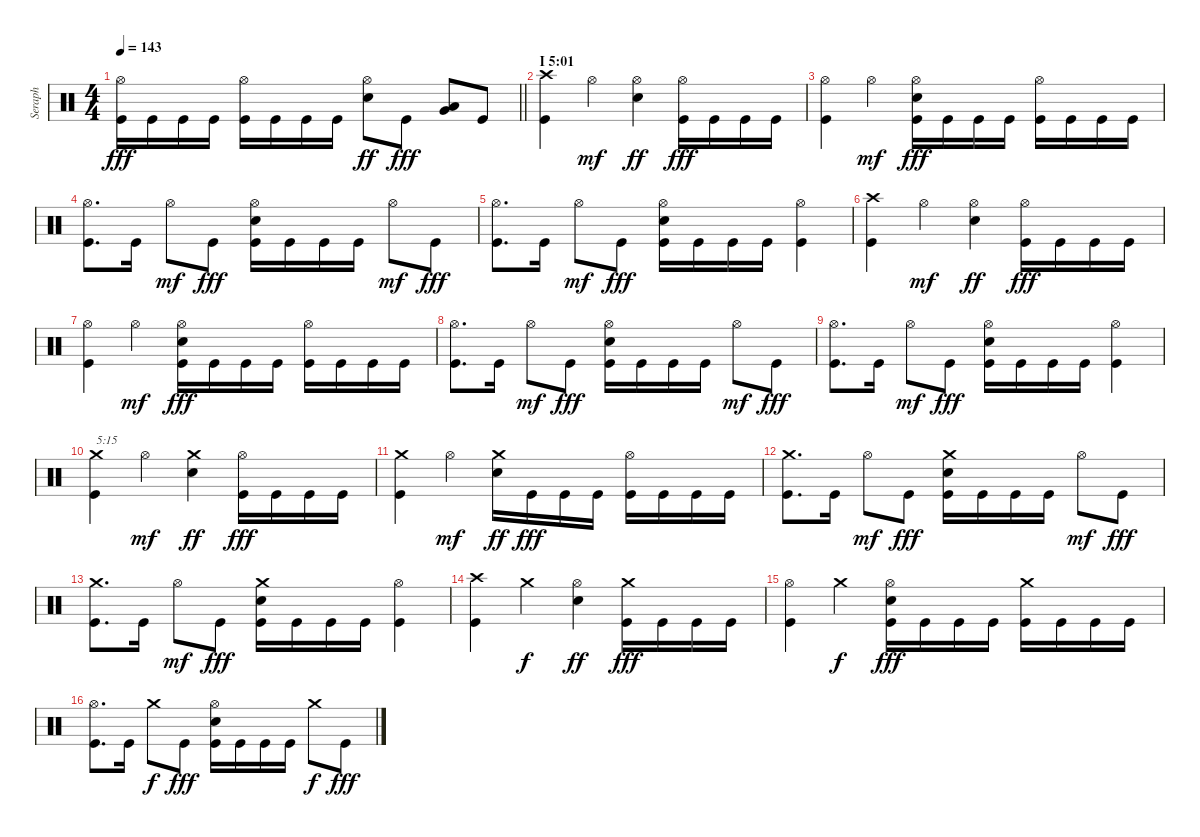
\track ("Seraph" "Seraph") {instrument percussion}
\staff {score}
\articulation defaults
\ts (4 4)
\tempo 143
\clef neutral
\barLineRight lightlight
\ks c
("Hi-Hat (open)" "Kick (hit)").16{dy fff} "Kick (hit)".16 "Kick (hit)".16 "Kick (hit)".16 ("Hi-Hat (open)" "Kick (hit)").16 "Kick (hit)".16 "Kick (hit)".16 "Kick (hit)".16 ("Hi-Hat (open)" "Electric Snare (hit)").8{dy ff} "Kick (hit)".8{dy fff} ("Very Low Tom (hit)" "Low Floor Tom (hit)").8 "Kick (hit)".8 |
\section ("" "I 5:01")
("Crash high (hit)" "Kick (hit)").4 "Hi-Hat (open)".4{dy mf} ("Hi-Hat (open)" "Electric Snare (hit)").4{dy ff} ("Hi-Hat (open)" "Kick (hit)").16{dy fff} "Kick (hit)".16 "Kick (hit)".16 "Kick (hit)".16 |
("Hi-Hat (open)" "Kick (hit)").4 "Hi-Hat (open)".4{dy mf} ("Hi-Hat (open)" "Electric Snare (hit)" "Kick (hit)").16{dy fff} "Kick (hit)".16 "Kick (hit)".16 "Kick (hit)".16 ("Hi-Hat (open)" "Kick (hit)").16 "Kick (hit)".16 "Kick (hit)".16 "Kick (hit)".16 |
("Hi-Hat (open)" "Kick (hit)").8{d} "Kick (hit)".16 "Hi-Hat (open)".8{dy mf} "Kick (hit)".8{dy fff} ("Hi-Hat (open)" "Electric Snare (hit)" "Kick (hit)").16 "Kick (hit)".16 "Kick (hit)".16 "Kick (hit)".16 "Hi-Hat (open)".8{dy mf} "Kick (hit)".8{dy fff} |
("Hi-Hat (open)" "Kick (hit)").8{d} "Kick (hit)".16 "Hi-Hat (open)".8{dy mf} "Kick (hit)".8{dy fff} ("Hi-Hat (open)" "Electric Snare (hit)" "Kick (hit)").16 "Kick (hit)".16 "Kick (hit)".16 "Kick (hit)".16 ("Hi-Hat (open)" "Kick (hit)").4 |
("Crash high (hit)" "Kick (hit)").4 "Hi-Hat (open)".4{dy mf} ("Hi-Hat (open)" "Electric Snare (hit)").4{dy ff} ("Hi-Hat (open)" "Kick (hit)").16{dy fff} "Kick (hit)".16 "Kick (hit)".16 "Kick (hit)".16 |
("Hi-Hat (open)" "Kick (hit)").4 "Hi-Hat (open)".4{dy mf} ("Hi-Hat (open)" "Electric Snare (hit)" "Kick (hit)").16{dy fff} "Kick (hit)".16 "Kick (hit)".16 "Kick (hit)".16 ("Hi-Hat (open)" "Kick (hit)").16 "Kick (hit)".16 "Kick (hit)".16 "Kick (hit)".16 |
("Hi-Hat (open)" "Kick (hit)").8{d} "Kick (hit)".16 "Hi-Hat (open)".8{dy mf} "Kick (hit)".8{dy fff} ("Hi-Hat (open)" "Electric Snare (hit)" "Kick (hit)").16 "Kick (hit)".16 "Kick (hit)".16 "Kick (hit)".16 "Hi-Hat (open)".8{dy mf} "Kick (hit)".8{dy fff} |
("Hi-Hat (open)" "Kick (hit)").8{d} "Kick (hit)".16 "Hi-Hat (open)".8{dy mf} "Kick (hit)".8{dy fff} ("Hi-Hat (open)" "Electric Snare (hit)" "Kick (hit)").16 "Kick (hit)".16 "Kick (hit)".16 "Kick (hit)".16 ("Hi-Hat (open)" "Kick (hit)").4 |
("Crash medium (hit)" "Kick (hit)").4{txt "5:15"} "Hi-Hat (open)".4{dy mf} ("Crash medium (hit)" "Electric Snare (hit)").4{dy ff} ("Hi-Hat (open)" "Kick (hit)").16{dy fff} "Kick (hit)".16 "Kick (hit)".16 "Kick (hit)".16 |
("Crash medium (hit)" "Kick (hit)").4 "Hi-Hat (open)".4{dy mf} ("Crash medium (hit)" "Electric Snare (hit)").16{dy ff} "Kick (hit)".16{dy fff} "Kick (hit)".16 "Kick (hit)".16 ("Hi-Hat (open)" "Kick (hit)").16 "Kick (hit)".16 "Kick (hit)".16 "Kick (hit)".16 |
("Crash medium (hit)" "Kick (hit)").8{d} "Kick (hit)".16 "Hi-Hat (open)".8{dy mf} "Kick (hit)".8{dy fff} ("Crash medium (hit)" "Electric Snare (hit)" "Kick (hit)").16 "Kick (hit)".16 "Kick (hit)".16 "Kick (hit)".16 "Hi-Hat (open)".8{dy mf} "Kick (hit)".8{dy fff} |
("Crash medium (hit)" "Kick (hit)").8{d} "Kick (hit)".16 "Hi-Hat (open)".8{dy mf} "Kick (hit)".8{dy fff} ("Crash medium (hit)" "Electric Snare (hit)" "Kick (hit)").16 "Kick (hit)".16 "Kick (hit)".16 "Kick (hit)".16 ("Hi-Hat (open)" "Kick (hit)").4 |
("Crash high (hit)" "Kick (hit)").4 "Crash medium (hit)".4{dy f} ("Hi-Hat (open)" "Electric Snare (hit)").4{dy ff} ("Crash medium (hit)" "Kick (hit)").16{dy fff} "Kick (hit)".16 "Kick (hit)".16 "Kick (hit)".16 |
("Hi-Hat (open)" "Kick (hit)").4 "Crash medium (hit)".4{dy f} ("Hi-Hat (open)" "Electric Snare (hit)" "Kick (hit)").16{dy fff} "Kick (hit)".16 "Kick (hit)".16 "Kick (hit)".16 ("Crash medium (hit)" "Kick (hit)").16 "Kick (hit)".16 "Kick (hit)".16 "Kick (hit)".16 |
("Hi-Hat (open)" "Kick (hit)").8{d} "Kick (hit)".16 "Crash medium (hit)".8{dy f} "Kick (hit)".8{dy fff} ("Hi-Hat (open)" "Electric Snare (hit)" "Kick (hit)").16 "Kick (hit)".16 "Kick (hit)".16 "Kick (hit)".16 "Crash medium (hit)".8{dy f} "Kick (hit)".8{dy fff}
